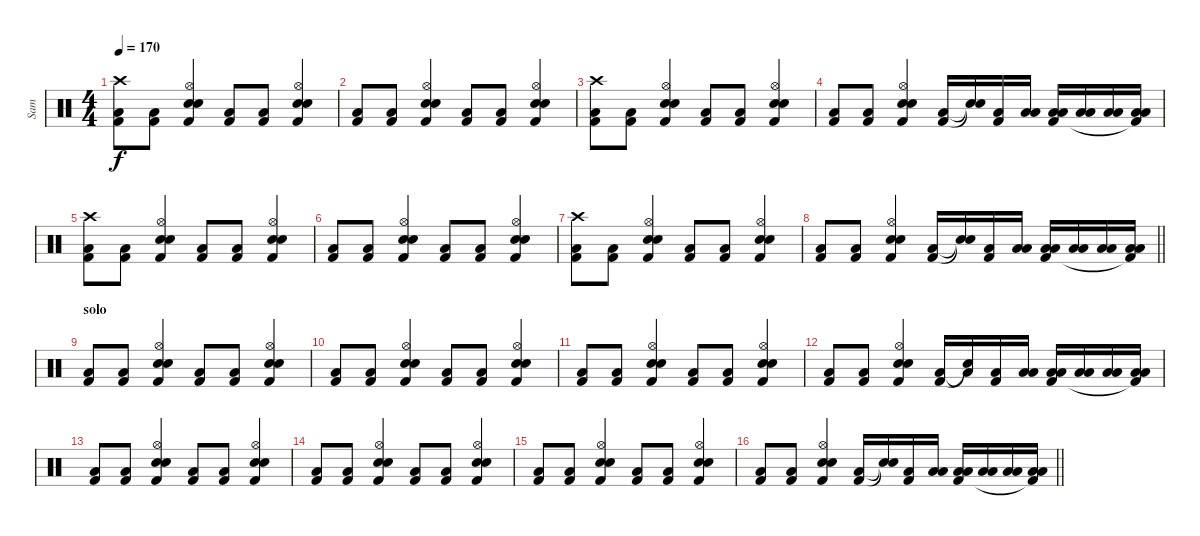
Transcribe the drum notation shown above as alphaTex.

\track ("Sam" "Sam") {instrument percussion}
\staff {score}
\articulation defaults
\ts (4 4)
\tempo 170
\clef neutral
\ks c
("Crash high (hit)" "Low Floor Tom (hit)" "Kick (hit) 2").8{dy f} ("Low Floor Tom (hit)" "Kick (hit) 2").8 ("Hi-Hat (open)" "Snare (hit) 2" "Snare (hit) 2" "Kick (hit) 2").4 ("Low Floor Tom (hit)" "Kick (hit) 2").8 ("Low Floor Tom (hit)" "Kick (hit) 2").8 ("Hi-Hat (open)" "Snare (hit) 2" "Snare (hit) 2" "Kick (hit) 2").4 |
("Low Floor Tom (hit)" "Kick (hit) 2").8 ("Low Floor Tom (hit)" "Kick (hit) 2").8 ("Hi-Hat (open)" "Snare (hit) 2" "Snare (hit) 2" "Kick (hit) 2").4 ("Low Floor Tom (hit)" "Kick (hit) 2").8 ("Low Floor Tom (hit)" "Kick (hit) 2").8 ("Hi-Hat (open)" "Snare (hit) 2" "Snare (hit) 2" "Kick (hit) 2").4 |
("Crash high (hit)" "Low Floor Tom (hit)" "Kick (hit) 2").8 ("Low Floor Tom (hit)" "Kick (hit) 2").8 ("Hi-Hat (open)" "Snare (hit) 2" "Snare (hit) 2" "Kick (hit) 2").4 ("Low Floor Tom (hit)" "Kick (hit) 2").8 ("Low Floor Tom (hit)" "Kick (hit) 2").8 ("Hi-Hat (open)" "Snare (hit) 2" "Snare (hit) 2" "Kick (hit) 2").4 |
("Low Floor Tom (hit)" "Kick (hit) 2").8 ("Low Floor Tom (hit)" "Kick (hit) 2").8 ("Hi-Hat (open)" "Snare (hit) 2" "Snare (hit) 2" "Kick (hit) 2").4 ("Low Floor Tom (hit)" "Kick (hit) 2").16 ("Snare (hit)"{t} "Snare (hit)"{t}).16 ("Low Floor Tom (hit)" "Kick (hit) 2").16 ("Low Floor Tom (hit)" "Low Tom (hit)").16 ("Low Floor Tom (hit)" "Low Tom (hit)" "Kick (hit) 2").16 ("Low Floor Tom (hit)" "Low Tom (hit)").16 ("Low Floor Tom (hit)" "Low Tom (hit)").16 ("Low Floor Tom (hit)" "Low Tom (hit)" "Kick (hit) 2"{t}).16 |
("Crash high (hit)" "Low Floor Tom (hit)" "Kick (hit) 2").8 ("Low Floor Tom (hit)" "Kick (hit) 2").8 ("Hi-Hat (open)" "Snare (hit) 2" "Snare (hit) 2" "Kick (hit) 2").4 ("Low Floor Tom (hit)" "Kick (hit) 2").8 ("Low Floor Tom (hit)" "Kick (hit) 2").8 ("Hi-Hat (open)" "Snare (hit) 2" "Snare (hit) 2" "Kick (hit) 2").4 |
("Low Floor Tom (hit)" "Kick (hit) 2").8 ("Low Floor Tom (hit)" "Kick (hit) 2").8 ("Hi-Hat (open)" "Snare (hit) 2" "Snare (hit) 2" "Kick (hit) 2").4 ("Low Floor Tom (hit)" "Kick (hit) 2").8 ("Low Floor Tom (hit)" "Kick (hit) 2").8 ("Hi-Hat (open)" "Snare (hit) 2" "Snare (hit) 2" "Kick (hit) 2").4 |
("Crash high (hit)" "Low Floor Tom (hit)" "Kick (hit) 2").8 ("Low Floor Tom (hit)" "Kick (hit) 2").8 ("Hi-Hat (open)" "Snare (hit) 2" "Snare (hit) 2" "Kick (hit) 2").4 ("Low Floor Tom (hit)" "Kick (hit) 2").8 ("Low Floor Tom (hit)" "Kick (hit) 2").8 ("Hi-Hat (open)" "Snare (hit) 2" "Snare (hit) 2" "Kick (hit) 2").4 |
\barLineRight lightlight
("Low Floor Tom (hit)" "Kick (hit) 2").8 ("Low Floor Tom (hit)" "Kick (hit) 2").8 ("Hi-Hat (open)" "Snare (hit) 2" "Snare (hit) 2" "Kick (hit) 2").4 ("Low Floor Tom (hit)" "Kick (hit) 2").16 ("Snare (hit)"{t} "Snare (hit)"{t}).16 ("Low Floor Tom (hit)" "Kick (hit) 2").16 ("Low Floor Tom (hit)" "Low Tom (hit)").16 ("Low Floor Tom (hit)" "Low Tom (hit)" "Kick (hit) 2").16 ("Low Floor Tom (hit)" "Low Tom (hit)").16 ("Low Floor Tom (hit)" "Low Tom (hit)").16 ("Low Floor Tom (hit)" "Low Tom (hit)" "Kick (hit) 2"{t}).16 |
\section ("" "solo")
("Low Floor Tom (hit)" "Kick (hit) 2").8{volume 10} ("Low Floor Tom (hit)" "Kick (hit) 2").8 ("Hi-Hat (open)" "Snare (hit) 2" "Snare (hit) 2" "Kick (hit) 2").4 ("Low Floor Tom (hit)" "Kick (hit) 2").8 ("Low Floor Tom (hit)" "Kick (hit) 2").8 ("Hi-Hat (open)" "Snare (hit) 2" "Snare (hit) 2" "Kick (hit) 2").4 |
("Low Floor Tom (hit)" "Kick (hit) 2").8 ("Low Floor Tom (hit)" "Kick (hit) 2").8 ("Hi-Hat (open)" "Snare (hit) 2" "Snare (hit) 2" "Kick (hit) 2").4 ("Low Floor Tom (hit)" "Kick (hit) 2").8 ("Low Floor Tom (hit)" "Kick (hit) 2").8 ("Hi-Hat (open)" "Snare (hit) 2" "Snare (hit) 2" "Kick (hit) 2").4 |
("Low Floor Tom (hit)" "Kick (hit) 2").8 ("Low Floor Tom (hit)" "Kick (hit) 2").8 ("Hi-Hat (open)" "Snare (hit) 2" "Snare (hit) 2" "Kick (hit) 2").4 ("Low Floor Tom (hit)" "Kick (hit) 2").8 ("Low Floor Tom (hit)" "Kick (hit) 2").8 ("Hi-Hat (open)" "Snare (hit) 2" "Snare (hit) 2" "Kick (hit) 2").4 |
("Low Floor Tom (hit)" "Kick (hit) 2").8 ("Low Floor Tom (hit)" "Kick (hit) 2").8 ("Hi-Hat (open)" "Snare (hit) 2" "Snare (hit) 2" "Kick (hit) 2").4 ("Low Floor Tom (hit)" "Kick (hit) 2").16 ("Low Floor Tom (hit)"{t} "Snare (hit)"{t}).16 ("Low Floor Tom (hit)" "Kick (hit) 2").16 ("Low Floor Tom (hit)" "Low Tom (hit)").16 ("Low Floor Tom (hit)" "Low Tom (hit)" "Kick (hit) 2").16 ("Low Floor Tom (hit)" "Low Tom (hit)").16 ("Low Floor Tom (hit)" "Low Tom (hit)").16 ("Low Floor Tom (hit)" "Low Tom (hit)" "Kick (hit) 2"{t}).16 |
("Low Floor Tom (hit)" "Kick (hit) 2").8 ("Low Floor Tom (hit)" "Kick (hit) 2").8 ("Hi-Hat (open)" "Snare (hit) 2" "Snare (hit) 2" "Kick (hit) 2").4 ("Low Floor Tom (hit)" "Kick (hit) 2").8 ("Low Floor Tom (hit)" "Kick (hit) 2").8 ("Hi-Hat (open)" "Snare (hit) 2" "Snare (hit) 2" "Kick (hit) 2").4 |
("Low Floor Tom (hit)" "Kick (hit) 2").8 ("Low Floor Tom (hit)" "Kick (hit) 2").8 ("Hi-Hat (open)" "Snare (hit) 2" "Snare (hit) 2" "Kick (hit) 2").4 ("Low Floor Tom (hit)" "Kick (hit) 2").8 ("Low Floor Tom (hit)" "Kick (hit) 2").8 ("Hi-Hat (open)" "Snare (hit) 2" "Snare (hit) 2" "Kick (hit) 2").4 |
("Low Floor Tom (hit)" "Kick (hit) 2").8 ("Low Floor Tom (hit)" "Kick (hit) 2").8 ("Hi-Hat (open)" "Snare (hit) 2" "Snare (hit) 2" "Kick (hit) 2").4 ("Low Floor Tom (hit)" "Kick (hit) 2").8 ("Low Floor Tom (hit)" "Kick (hit) 2").8 ("Hi-Hat (open)" "Snare (hit) 2" "Snare (hit) 2" "Kick (hit) 2").4 |
\barLineRight lightlight
("Low Floor Tom (hit)" "Kick (hit) 2").8 ("Low Floor Tom (hit)" "Kick (hit) 2").8 ("Hi-Hat (open)" "Snare (hit) 2" "Snare (hit) 2" "Kick (hit) 2").4 ("Low Floor Tom (hit)" "Kick (hit) 2").16 ("Snare (hit)"{t} "Snare (hit)"{t}).16 ("Low Floor Tom (hit)" "Kick (hit) 2").16 ("Low Floor Tom (hit)" "Low Tom (hit)").16 ("Low Floor Tom (hit)" "Low Tom (hit)" "Kick (hit) 2").16 ("Low Floor Tom (hit)" "Low Tom (hit)").16 ("Low Floor Tom (hit)" "Low Tom (hit)").16 ("Low Floor Tom (hit)" "Low Tom (hit)" "Kick (hit) 2"{t}).16
